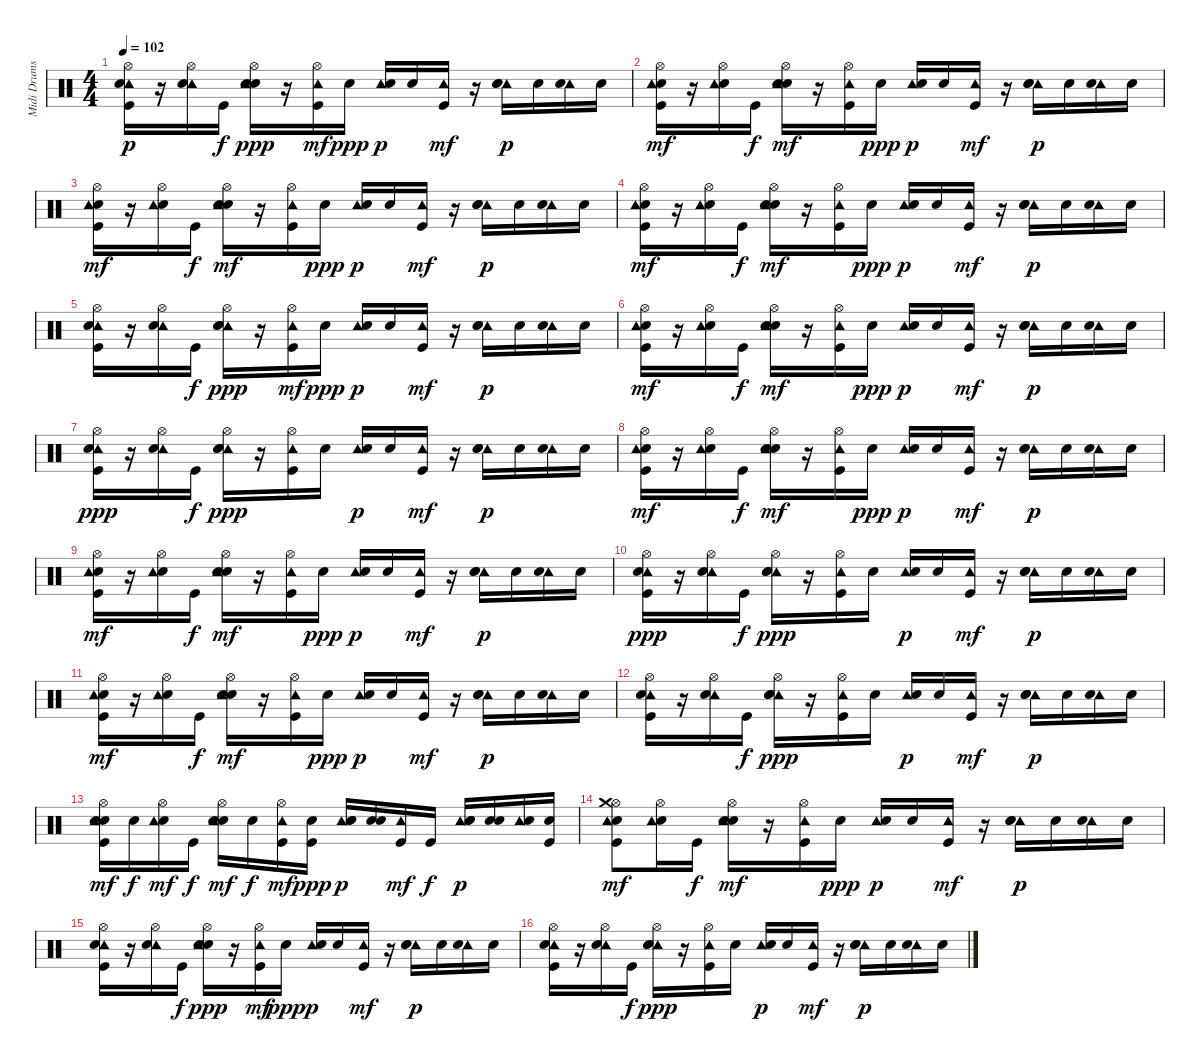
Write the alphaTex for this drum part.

\track ("Midi Drums" "Midi Drums") {instrument percussion}
\staff {score}
\articulation defaults
\ts (4 4)
\tempo 102
\clef neutral
\ks c
("Kick (hit)" "Hi-Hat (open)" "Tambourine (hit)" "Electric Snare (hit)").16{dy p} r.16 ("Hi-Hat (open)" "Tambourine (hit)" "Electric Snare (hit)").16 "Kick (hit)".16{dy f} ("Snare (hit) 2" "Hi-Hat (open)" "Tambourine (hit)" "Electric Snare (hit)").16{dy ppp} r.16 ("Kick (hit)" "Hi-Hat (open)" "Tambourine (hit)").16{dy mf} "Electric Snare (hit)".16{dy ppp} ("Tambourine (hit)" "Electric Snare (hit)").16{dy p} "Electric Snare (hit)".16 ("Kick (hit)" "Tambourine (hit)").16{dy mf} r.16 ("Tambourine (hit)" "Electric Snare (hit)" "Snare (hit) 2").16{dy p} "Electric Snare (hit)".16 ("Tambourine (hit)" "Electric Snare (hit)").16 "Electric Snare (hit)".16 |
("Kick (hit)" "Electric Snare (hit)" "Hi-Hat (open)" "Tambourine (hit)").16{dy mf} r.16 ("Electric Snare (hit)" "Hi-Hat (open)" "Tambourine (hit)").16 "Kick (hit)".16{dy f} ("Snare (hit) 2" "Electric Snare (hit)" "Hi-Hat (open)" "Tambourine (hit)").16{dy mf} r.16 ("Kick (hit)" "Hi-Hat (open)" "Tambourine (hit)").16 "Electric Snare (hit)".16{dy ppp} ("Tambourine (hit)" "Electric Snare (hit)").16{dy p} "Electric Snare (hit)".16 ("Kick (hit)" "Tambourine (hit)").16{dy mf} r.16 ("Tambourine (hit)" "Electric Snare (hit)" "Snare (hit) 2").16{dy p} "Electric Snare (hit)".16 ("Tambourine (hit)" "Electric Snare (hit)").16 "Electric Snare (hit)".16 |
("Hi-Hat (open)" "Electric Snare (hit)" "Kick (hit)" "Tambourine (hit)").16{dy mf} r.16 ("Hi-Hat (open)" "Electric Snare (hit)" "Tambourine (hit)").16 "Kick (hit)".16{dy f} ("Hi-Hat (open)" "Electric Snare (hit)" "Snare (hit) 2" "Tambourine (hit)").16{dy mf} r.16 ("Hi-Hat (open)" "Kick (hit)" "Tambourine (hit)").16 "Electric Snare (hit)".16{dy ppp} ("Tambourine (hit)" "Electric Snare (hit)").16{dy p} "Electric Snare (hit)".16 ("Kick (hit)" "Tambourine (hit)").16{dy mf} r.16 ("Tambourine (hit)" "Electric Snare (hit)" "Snare (hit) 2").16{dy p} "Electric Snare (hit)".16 ("Tambourine (hit)" "Electric Snare (hit)").16 "Electric Snare (hit)".16 |
("Kick (hit)" "Hi-Hat (open)" "Electric Snare (hit)" "Tambourine (hit)").16{dy mf} r.16 ("Hi-Hat (open)" "Electric Snare (hit)" "Tambourine (hit)").16 "Kick (hit)".16{dy f} ("Snare (hit) 2" "Hi-Hat (open)" "Electric Snare (hit)" "Tambourine (hit)").16{dy mf} r.16 ("Kick (hit)" "Hi-Hat (open)" "Tambourine (hit)").16 "Electric Snare (hit)".16{dy ppp} ("Tambourine (hit)" "Electric Snare (hit)").16{dy p} "Electric Snare (hit)".16 ("Kick (hit)" "Tambourine (hit)").16{dy mf} r.16 ("Tambourine (hit)" "Electric Snare (hit)" "Snare (hit) 2").16{dy p} "Electric Snare (hit)".16 ("Tambourine (hit)" "Electric Snare (hit)").16 "Electric Snare (hit)".16 |
("Hi-Hat (open)" "Tambourine (hit)" "Electric Snare (hit)" "Kick (hit)").16 r.16 ("Hi-Hat (open)" "Tambourine (hit)" "Electric Snare (hit)").16 "Kick (hit)".16{dy f} ("Hi-Hat (open)" "Tambourine (hit)" "Electric Snare (hit)" "Snare (hit) 2").16{dy ppp} r.16 ("Hi-Hat (open)" "Tambourine (hit)" "Kick (hit)").16{dy mf} "Electric Snare (hit)".16{dy ppp} ("Tambourine (hit)" "Electric Snare (hit)").16{dy p} "Electric Snare (hit)".16 ("Tambourine (hit)" "Kick (hit)").16{dy mf} r.16 ("Tambourine (hit)" "Electric Snare (hit)" "Snare (hit) 2").16{dy p} "Electric Snare (hit)".16 ("Tambourine (hit)" "Electric Snare (hit)").16 "Electric Snare (hit)".16 |
("Kick (hit)" "Electric Snare (hit)" "Hi-Hat (open)" "Tambourine (hit)").16{dy mf} r.16 ("Electric Snare (hit)" "Hi-Hat (open)" "Tambourine (hit)").16 "Kick (hit)".16{dy f} ("Snare (hit) 2" "Electric Snare (hit)" "Hi-Hat (open)" "Tambourine (hit)").16{dy mf} r.16 ("Kick (hit)" "Hi-Hat (open)" "Tambourine (hit)").16 "Electric Snare (hit)".16{dy ppp} ("Tambourine (hit)" "Electric Snare (hit)").16{dy p} "Electric Snare (hit)".16 ("Kick (hit)" "Tambourine (hit)").16{dy mf} r.16 ("Tambourine (hit)" "Electric Snare (hit)" "Snare (hit) 2").16{dy p} "Electric Snare (hit)".16 ("Tambourine (hit)" "Electric Snare (hit)").16 "Electric Snare (hit)".16 |
("Tambourine (hit)" "Electric Snare (hit)" "Hi-Hat (open)" "Kick (hit)").16{dy ppp} r.16 ("Tambourine (hit)" "Electric Snare (hit)" "Hi-Hat (open)").16 "Kick (hit)".16{dy f} ("Tambourine (hit)" "Electric Snare (hit)" "Hi-Hat (open)" "Snare (hit) 2").16{dy ppp} r.16 ("Tambourine (hit)" "Hi-Hat (open)" "Kick (hit)").16 "Electric Snare (hit)".16 ("Tambourine (hit)" "Electric Snare (hit)").16{dy p} "Electric Snare (hit)".16 ("Tambourine (hit)" "Kick (hit)").16{dy mf} r.16 ("Tambourine (hit)" "Electric Snare (hit)" "Snare (hit) 2").16{dy p} "Electric Snare (hit)".16 ("Tambourine (hit)" "Electric Snare (hit)").16 "Electric Snare (hit)".16 |
("Electric Snare (hit)" "Hi-Hat (open)" "Kick (hit)" "Tambourine (hit)").16{dy mf} r.16 ("Electric Snare (hit)" "Hi-Hat (open)" "Tambourine (hit)").16 "Kick (hit)".16{dy f} ("Electric Snare (hit)" "Hi-Hat (open)" "Snare (hit) 2" "Tambourine (hit)").16{dy mf} r.16 ("Hi-Hat (open)" "Kick (hit)" "Tambourine (hit)").16 "Electric Snare (hit)".16{dy ppp} ("Tambourine (hit)" "Electric Snare (hit)").16{dy p} "Electric Snare (hit)".16 ("Kick (hit)" "Tambourine (hit)").16{dy mf} r.16 ("Tambourine (hit)" "Electric Snare (hit)" "Snare (hit) 2").16{dy p} "Electric Snare (hit)".16 ("Tambourine (hit)" "Electric Snare (hit)").16 "Electric Snare (hit)".16 |
("Hi-Hat (open)" "Kick (hit)" "Electric Snare (hit)" "Tambourine (hit)").16{dy mf} r.16 ("Hi-Hat (open)" "Electric Snare (hit)" "Tambourine (hit)").16 "Kick (hit)".16{dy f} ("Hi-Hat (open)" "Snare (hit) 2" "Electric Snare (hit)" "Tambourine (hit)").16{dy mf} r.16 ("Hi-Hat (open)" "Kick (hit)" "Tambourine (hit)").16 "Electric Snare (hit)".16{dy ppp} ("Tambourine (hit)" "Electric Snare (hit)").16{dy p} "Electric Snare (hit)".16 ("Kick (hit)" "Tambourine (hit)").16{dy mf} r.16 ("Tambourine (hit)" "Electric Snare (hit)" "Snare (hit) 2").16{dy p} "Electric Snare (hit)".16 ("Tambourine (hit)" "Electric Snare (hit)").16 "Electric Snare (hit)".16 |
("Tambourine (hit)" "Electric Snare (hit)" "Hi-Hat (open)" "Kick (hit)").16{dy ppp} r.16 ("Tambourine (hit)" "Electric Snare (hit)" "Hi-Hat (open)").16 "Kick (hit)".16{dy f} ("Tambourine (hit)" "Electric Snare (hit)" "Hi-Hat (open)" "Snare (hit) 2").16{dy ppp} r.16 ("Tambourine (hit)" "Hi-Hat (open)" "Kick (hit)").16 "Electric Snare (hit)".16 ("Tambourine (hit)" "Electric Snare (hit)").16{dy p} "Electric Snare (hit)".16 ("Tambourine (hit)" "Kick (hit)").16{dy mf} r.16 ("Tambourine (hit)" "Electric Snare (hit)" "Snare (hit) 2").16{dy p} "Electric Snare (hit)".16 ("Tambourine (hit)" "Electric Snare (hit)").16 "Electric Snare (hit)".16 |
("Kick (hit)" "Electric Snare (hit)" "Hi-Hat (open)" "Tambourine (hit)").16{dy mf} r.16 ("Electric Snare (hit)" "Hi-Hat (open)" "Tambourine (hit)").16 "Kick (hit)".16{dy f} ("Snare (hit) 2" "Electric Snare (hit)" "Hi-Hat (open)" "Tambourine (hit)").16{dy mf} r.16 ("Kick (hit)" "Hi-Hat (open)" "Tambourine (hit)").16 "Electric Snare (hit)".16{dy ppp} ("Tambourine (hit)" "Electric Snare (hit)").16{dy p} "Electric Snare (hit)".16 ("Kick (hit)" "Tambourine (hit)").16{dy mf} r.16 ("Tambourine (hit)" "Electric Snare (hit)" "Snare (hit) 2").16{dy p} "Electric Snare (hit)".16 ("Tambourine (hit)" "Electric Snare (hit)").16 "Electric Snare (hit)".16 |
("Tambourine (hit)" "Hi-Hat (open)" "Kick (hit)" "Electric Snare (hit)").16 r.16 ("Tambourine (hit)" "Hi-Hat (open)" "Electric Snare (hit)").16 "Kick (hit)".16{dy f} ("Tambourine (hit)" "Hi-Hat (open)" "Snare (hit) 2" "Electric Snare (hit)").16{dy ppp} r.16 ("Tambourine (hit)" "Hi-Hat (open)" "Kick (hit)").16 "Electric Snare (hit)".16 ("Tambourine (hit)" "Electric Snare (hit)").16{dy p} "Electric Snare (hit)".16 ("Tambourine (hit)" "Kick (hit)").16{dy mf} r.16 ("Tambourine (hit)" "Electric Snare (hit)" "Snare (hit) 2").16{dy p} "Electric Snare (hit)".16 ("Tambourine (hit)" "Electric Snare (hit)").16 "Electric Snare (hit)".16 |
("Electric Snare (hit)" "Hi-Hat (open)" "Tambourine (hit)" "Kick (hit)" "Snare (hit) 2").16{dy mf} "Snare (hit) 2".16{dy f} ("Electric Snare (hit)" "Hi-Hat (open)" "Tambourine (hit)").16{dy mf} "Kick (hit)".16{dy f} ("Electric Snare (hit)" "Hi-Hat (open)" "Tambourine (hit)" "Snare (hit) 2").16{dy mf} "Snare (hit) 2".16{dy f} ("Kick (hit)" "Hi-Hat (open)" "Tambourine (hit)").16{dy mf} ("Kick (hit)" "Electric Snare (hit)").16{dy ppp} ("Tambourine (hit)" "Snare (hit) 2" "Electric Snare (hit)").16{dy p} ("Snare (hit) 2" "Electric Snare (hit)").16 ("Tambourine (hit)" "Kick (hit)").16{dy mf} "Kick (hit)".16{dy f} ("Tambourine (hit)" "Electric Snare (hit)" "Snare (hit) 2").16{dy p} ("Snare (hit) 2" "Electric Snare (hit)").16 ("Tambourine (hit)" "Electric Snare (hit)").16 ("Kick (hit)" "Electric Snare (hit)").16 |
("Electric Snare (hit)" "Hi-Hat (open)" "Crash medium (hit)" "Tambourine (hit)" "Kick (hit)").8{dy mf} ("Electric Snare (hit)" "Hi-Hat (open)" "Tambourine (hit)").16 "Kick (hit)".16{dy f} ("Electric Snare (hit)" "Hi-Hat (open)" "Tambourine (hit)" "Snare (hit) 2").16{dy mf} r.16 ("Hi-Hat (open)" "Tambourine (hit)" "Kick (hit)").16 "Electric Snare (hit)".16{dy ppp} ("Tambourine (hit)" "Electric Snare (hit)").16{dy p} "Electric Snare (hit)".16 ("Tambourine (hit)" "Kick (hit)").16{dy mf} r.16 ("Tambourine (hit)" "Electric Snare (hit)" "Snare (hit) 2").16{dy p} "Electric Snare (hit)".16 ("Tambourine (hit)" "Electric Snare (hit)").16 "Electric Snare (hit)".16 |
("Kick (hit)" "Hi-Hat (open)" "Tambourine (hit)" "Electric Snare (hit)").16 r.16 ("Hi-Hat (open)" "Tambourine (hit)" "Electric Snare (hit)").16 "Kick (hit)".16{dy f} ("Snare (hit) 2" "Hi-Hat (open)" "Tambourine (hit)" "Electric Snare (hit)").16{dy ppp} r.16 ("Kick (hit)" "Hi-Hat (open)" "Tambourine (hit)").16{dy mf} "Electric Snare (hit)".16{dy ppp} ("Tambourine (hit)" "Electric Snare (hit)").16{dy p} "Electric Snare (hit)".16 ("Kick (hit)" "Tambourine (hit)").16{dy mf} r.16 ("Tambourine (hit)" "Electric Snare (hit)" "Snare (hit) 2").16{dy p} "Electric Snare (hit)".16 ("Tambourine (hit)" "Electric Snare (hit)").16 "Electric Snare (hit)".16 |
("Tambourine (hit)" "Hi-Hat (open)" "Kick (hit)" "Electric Snare (hit)").16 r.16 ("Tambourine (hit)" "Hi-Hat (open)" "Electric Snare (hit)").16 "Kick (hit)".16{dy f} ("Tambourine (hit)" "Hi-Hat (open)" "Snare (hit) 2" "Electric Snare (hit)").16{dy ppp} r.16 ("Tambourine (hit)" "Hi-Hat (open)" "Kick (hit)").16 "Electric Snare (hit)".16 ("Tambourine (hit)" "Electric Snare (hit)").16{dy p} "Electric Snare (hit)".16 ("Tambourine (hit)" "Kick (hit)").16{dy mf} r.16 ("Tambourine (hit)" "Electric Snare (hit)" "Snare (hit) 2").16{dy p} "Electric Snare (hit)".16 ("Tambourine (hit)" "Electric Snare (hit)").16 "Electric Snare (hit)".16
